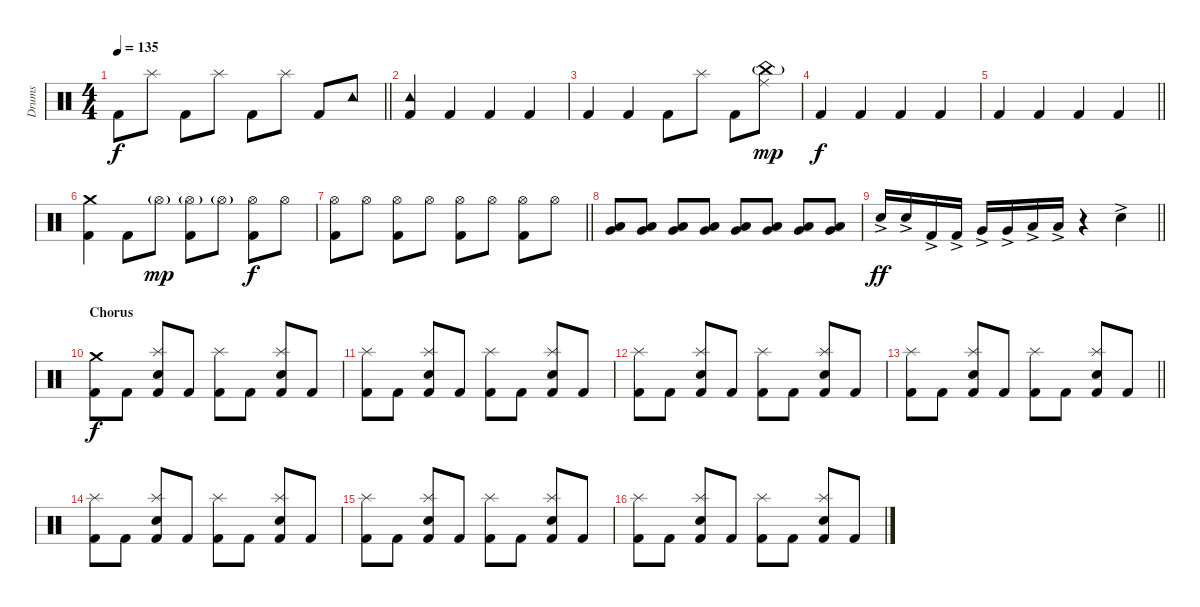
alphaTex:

\track ("Drums" "Drums") {instrument percussion}
\staff {score}
\articulation defaults
\ts (4 4)
\tempo 135
\clef neutral
\barLineRight lightlight
\ks c "Kick (hit) 2".8{dy f} "Splash (hit)".8 "Kick (hit) 2".8 "Splash (hit)".8 "Kick (hit) 2".8 "Splash (hit)".8 "Kick (hit) 2".8 "Tambourine (hit)".8
|
\section ("" "")
("Kick (hit) 2" "Tambourine (hit)").4 "Kick (hit) 2".4 "Kick (hit) 2".4 "Kick (hit) 2".4 |
"Kick (hit) 2".4 "Kick (hit) 2".4 "Kick (hit) 2".8 "Splash (hit)".8 "Kick (hit) 2".8 ("China (hit)"{g} "Ride (middle)").8{dy mp} |
"Kick (hit) 2".4{dy f} "Kick (hit) 2".4 "Kick (hit) 2".4 "Kick (hit) 2".4 |
\barLineRight lightlight "Kick (hit) 2".4 "Kick (hit) 2".4 "Kick (hit) 2".4 "Kick (hit) 2".4
|
\section ("" "")
("Kick (hit) 2" "Crash medium (hit)").4 "Kick (hit) 2".8 "Hi-Hat (open)"{g}.8{dy mp} ("Kick (hit) 2" "Hi-Hat (open)"{g}).8 "Hi-Hat (open)"{g}.8 ("Kick (hit) 2" "Hi-Hat (open)").8{dy f} "Hi-Hat (open)".8 |
\barLineRight lightlight
("Kick (hit) 2" "Hi-Hat (open)").8 "Hi-Hat (open)".8 ("Kick (hit) 2" "Hi-Hat (open)").8 "Hi-Hat (open)".8 ("Kick (hit) 2" "Hi-Hat (open)").8 "Hi-Hat (open)".8 ("Kick (hit) 2" "Hi-Hat (open)").8 "Hi-Hat (open)".8 |
\section ("" "")
("Very Low Tom (hit)" "Low Floor Tom (hit)").8 ("Very Low Tom (hit)" "Low Floor Tom (hit)").8 ("Very Low Tom (hit)" "Low Floor Tom (hit)").8 ("Very Low Tom (hit)" "Low Floor Tom (hit)").8 ("Very Low Tom (hit)" "Low Floor Tom (hit)").8 ("Very Low Tom (hit)" "Low Floor Tom (hit)").8 ("Very Low Tom (hit)" "Low Floor Tom (hit)").8 ("Very Low Tom (hit)" "Low Floor Tom (hit)").8 |
\barLineRight lightlight "Snare (hit) 2"{ac}.16{dy ff} "Snare (hit) 2"{ac}.16 "Kick (hit) 2"{ac}.16 "Kick (hit) 2"{ac}.16 "Very Low Tom (hit)"{ac}.16 "Very Low Tom (hit)"{ac}.16 "Low Floor Tom (hit)"{ac}.16 "Low Floor Tom (hit)"{ac}.16
r.4 "Snare (hit) 2"{ac}.4 |
\section ("" "Chorus")
("Kick (hit) 2" "Crash medium (hit)").8{dy f} "Kick (hit) 2".8 ("Kick (hit) 2" "Snare (hit) 2" "Splash (hit)").8 "Kick (hit) 2".8 ("Kick (hit) 2" "Splash (hit)").8 "Kick (hit) 2".8 ("Kick (hit) 2" "Snare (hit) 2" "Splash (hit)").8 "Kick (hit) 2".8 |
("Kick (hit) 2" "Splash (hit)").8 "Kick (hit) 2".8 ("Kick (hit) 2" "Snare (hit) 2" "Splash (hit)").8 "Kick (hit) 2".8 ("Kick (hit) 2" "Splash (hit)").8 "Kick (hit) 2".8 ("Kick (hit) 2" "Snare (hit) 2" "Splash (hit)").8 "Kick (hit) 2".8 |
("Kick (hit) 2" "Splash (hit)").8 "Kick (hit) 2".8 ("Kick (hit) 2" "Snare (hit) 2" "Splash (hit)").8 "Kick (hit) 2".8 ("Kick (hit) 2" "Splash (hit)").8 "Kick (hit) 2".8 ("Kick (hit) 2" "Snare (hit) 2" "Splash (hit)").8 "Kick (hit) 2".8 |
\barLineRight lightlight
("Kick (hit) 2" "Splash (hit)").8 "Kick (hit) 2".8 ("Kick (hit) 2" "Snare (hit) 2" "Splash (hit)").8 "Kick (hit) 2".8 ("Kick (hit) 2" "Splash (hit)").8 "Kick (hit) 2".8 ("Kick (hit) 2" "Snare (hit) 2" "Splash (hit)").8 "Kick (hit) 2".8 |
\section ("" "")
("Kick (hit) 2" "Splash (hit)").8 "Kick (hit) 2".8 ("Kick (hit) 2" "Snare (hit) 2" "Splash (hit)").8 "Kick (hit) 2".8 ("Kick (hit) 2" "Splash (hit)").8 "Kick (hit) 2".8 ("Kick (hit) 2" "Snare (hit) 2" "Splash (hit)").8 "Kick (hit) 2".8 |
("Kick (hit) 2" "Splash (hit)").8 "Kick (hit) 2".8 ("Kick (hit) 2" "Snare (hit) 2" "Splash (hit)").8 "Kick (hit) 2".8 ("Kick (hit) 2" "Splash (hit)").8 "Kick (hit) 2".8 ("Kick (hit) 2" "Snare (hit) 2" "Splash (hit)").8 "Kick (hit) 2".8 |
("Kick (hit) 2" "Splash (hit)").8 "Kick (hit) 2".8 ("Kick (hit) 2" "Snare (hit) 2" "Splash (hit)").8 "Kick (hit) 2".8 ("Kick (hit) 2" "Splash (hit)").8 "Kick (hit) 2".8 ("Kick (hit) 2" "Snare (hit) 2" "Splash (hit)").8 "Kick (hit) 2".8
